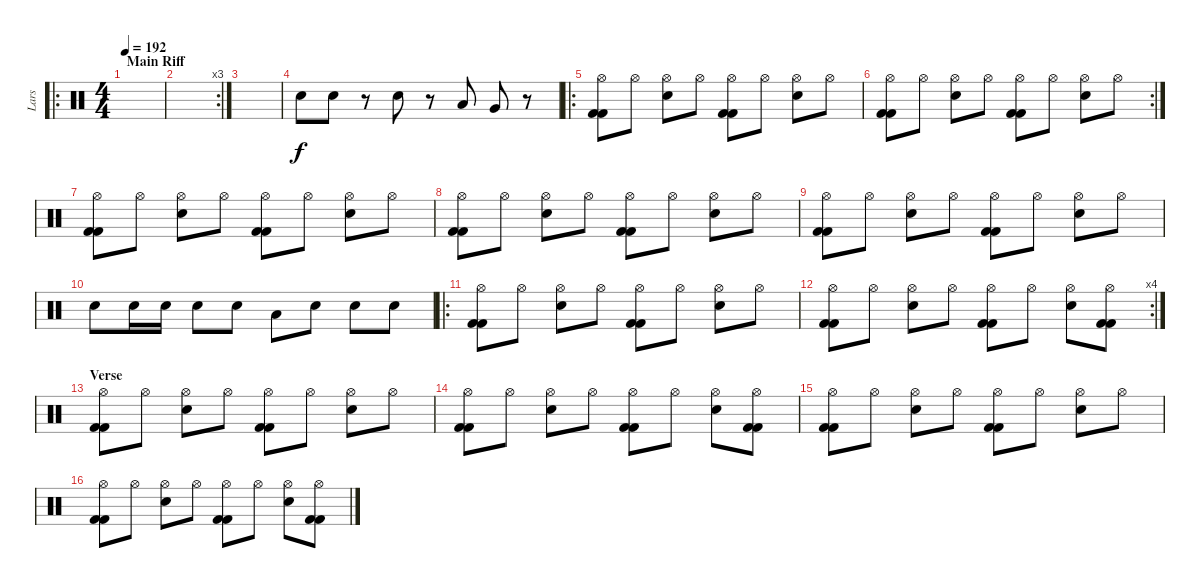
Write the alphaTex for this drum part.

\track ("Lars" "Lars") {instrument percussion}
\staff {score}
\articulation defaults
\ro
\ts (4 4)
\section ("" "Main Riff")
\tempo 192
\clef neutral
\ks c
|
\rc 3
|
|
"Electric Snare (hit)".8 "Electric Snare (hit)".8 r.8 "Electric Snare (hit)".8 r.8 "Low Tom (hit)".8 "Very Low Tom (hit)".8 r.8 |
\ro
("Hi-Hat (open)" "Kick (hit) 2" "Kick (hit) 2").8 "Hi-Hat (open)".8 ("Electric Snare (hit)" "Hi-Hat (open)").8 "Hi-Hat (open)".8 ("Hi-Hat (open)" "Kick (hit) 2" "Kick (hit) 2").8 "Hi-Hat (open)".8 ("Electric Snare (hit)" "Hi-Hat (open)").8 "Hi-Hat (open)".8 |
\rc 2
("Hi-Hat (open)" "Kick (hit) 2" "Kick (hit) 2").8 "Hi-Hat (open)".8 ("Electric Snare (hit)" "Hi-Hat (open)").8 "Hi-Hat (open)".8 ("Hi-Hat (open)" "Kick (hit) 2" "Kick (hit) 2").8 "Hi-Hat (open)".8 ("Electric Snare (hit)" "Hi-Hat (open)").8 "Hi-Hat (open)".8 |
\section ("" "")
("Hi-Hat (open)" "Kick (hit) 2" "Kick (hit) 2").8 "Hi-Hat (open)".8 ("Electric Snare (hit)" "Hi-Hat (open)").8 "Hi-Hat (open)".8 ("Hi-Hat (open)" "Kick (hit) 2" "Kick (hit) 2").8 "Hi-Hat (open)".8 ("Electric Snare (hit)" "Hi-Hat (open)").8 "Hi-Hat (open)".8 |
("Hi-Hat (open)" "Kick (hit) 2" "Kick (hit) 2").8 "Hi-Hat (open)".8 ("Electric Snare (hit)" "Hi-Hat (open)").8 "Hi-Hat (open)".8 ("Hi-Hat (open)" "Kick (hit) 2" "Kick (hit) 2").8 "Hi-Hat (open)".8 ("Electric Snare (hit)" "Hi-Hat (open)").8 "Hi-Hat (open)".8 |
("Hi-Hat (open)" "Kick (hit) 2" "Kick (hit) 2").8 "Hi-Hat (open)".8 ("Electric Snare (hit)" "Hi-Hat (open)").8 "Hi-Hat (open)".8 ("Hi-Hat (open)" "Kick (hit) 2" "Kick (hit) 2").8 "Hi-Hat (open)".8 ("Electric Snare (hit)" "Hi-Hat (open)").8 "Hi-Hat (open)".8 |
"Electric Snare (hit)".8 "Electric Snare (hit)".16 "Electric Snare (hit)".16 "Electric Snare (hit)".8 "Electric Snare (hit)".8 "Low Tom (hit)".8 "Electric Snare (hit)".8 "Electric Snare (hit)".8 "Electric Snare (hit)".8 |
\ro
("Hi-Hat (open)" "Kick (hit) 2" "Kick (hit) 2").8 "Hi-Hat (open)".8 ("Electric Snare (hit)" "Hi-Hat (open)").8 "Hi-Hat (open)".8 ("Hi-Hat (open)" "Kick (hit) 2" "Kick (hit) 2").8 "Hi-Hat (open)".8 ("Electric Snare (hit)" "Hi-Hat (open)").8 "Hi-Hat (open)".8 |
\rc 4
("Hi-Hat (open)" "Kick (hit) 2" "Kick (hit) 2").8 "Hi-Hat (open)".8 ("Electric Snare (hit)" "Hi-Hat (open)").8 "Hi-Hat (open)".8 ("Hi-Hat (open)" "Kick (hit) 2" "Kick (hit) 2").8 "Hi-Hat (open)".8 ("Electric Snare (hit)" "Hi-Hat (open)").8 ("Hi-Hat (open)" "Kick (hit) 2" "Kick (hit) 2").8 |
\section ("" "Verse ")
("Hi-Hat (open)" "Kick (hit) 2" "Kick (hit) 2").8 "Hi-Hat (open)".8 ("Electric Snare (hit)" "Hi-Hat (open)").8 "Hi-Hat (open)".8 ("Hi-Hat (open)" "Kick (hit) 2" "Kick (hit) 2").8 "Hi-Hat (open)".8 ("Electric Snare (hit)" "Hi-Hat (open)").8 "Hi-Hat (open)".8 |
("Hi-Hat (open)" "Kick (hit) 2" "Kick (hit) 2").8 "Hi-Hat (open)".8 ("Electric Snare (hit)" "Hi-Hat (open)").8 "Hi-Hat (open)".8 ("Hi-Hat (open)" "Kick (hit) 2" "Kick (hit) 2").8 "Hi-Hat (open)".8 ("Electric Snare (hit)" "Hi-Hat (open)").8 ("Hi-Hat (open)" "Kick (hit) 2" "Kick (hit) 2").8 |
("Hi-Hat (open)" "Kick (hit) 2" "Kick (hit) 2").8 "Hi-Hat (open)".8 ("Electric Snare (hit)" "Hi-Hat (open)").8 "Hi-Hat (open)".8 ("Hi-Hat (open)" "Kick (hit) 2" "Kick (hit) 2").8 "Hi-Hat (open)".8 ("Electric Snare (hit)" "Hi-Hat (open)").8 "Hi-Hat (open)".8 |
("Hi-Hat (open)" "Kick (hit) 2" "Kick (hit) 2").8 "Hi-Hat (open)".8 ("Electric Snare (hit)" "Hi-Hat (open)").8 "Hi-Hat (open)".8 ("Hi-Hat (open)" "Kick (hit) 2" "Kick (hit) 2").8 "Hi-Hat (open)".8 ("Electric Snare (hit)" "Hi-Hat (open)").8 ("Hi-Hat (open)" "Kick (hit) 2" "Kick (hit) 2").8
